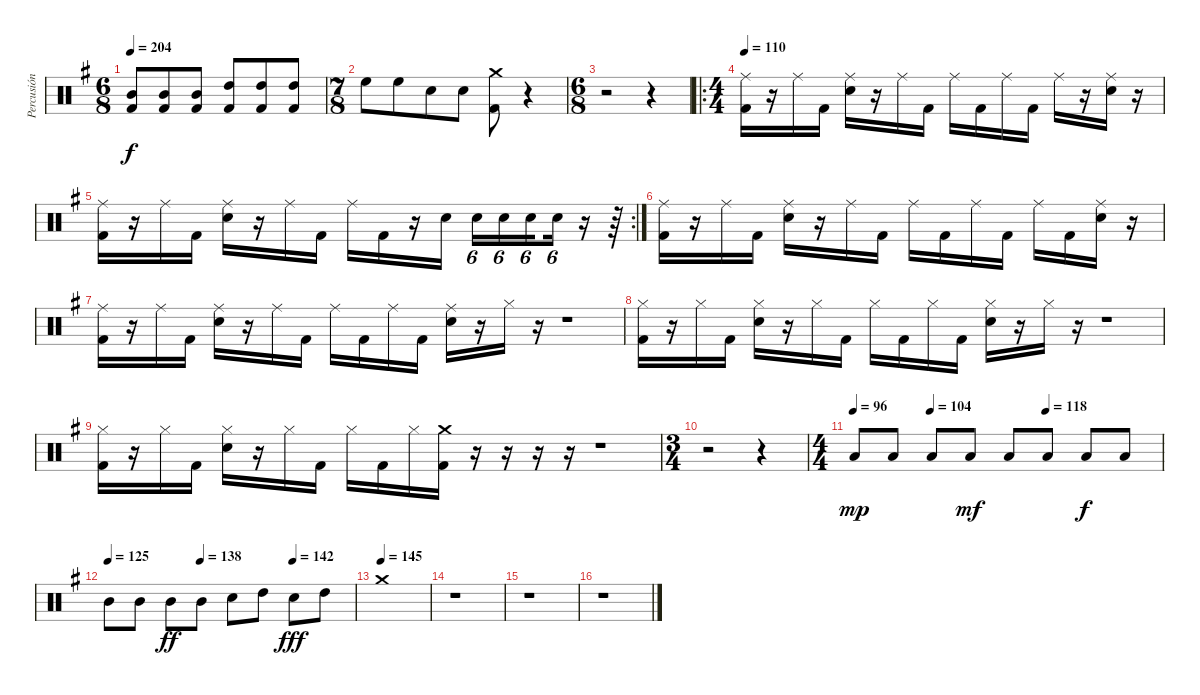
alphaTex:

\track ("Percusión" "Percusión") {instrument percussion}
\staff {score}
\articulation defaults
\ts (6 8)
\tempo 204
\clef neutral
\ks g
("Mid Tom (hit)" "Kick (hit) 2").8{dy f} ("Mid Tom (hit)" "Kick (hit) 2").8 ("Mid Tom (hit)" "Kick (hit) 2").8 ("High Tom (hit)" "Kick (hit) 2").8 ("High Tom (hit)" "Kick (hit) 2").8 ("High Tom (hit)" "Kick (hit) 2").8 |
\ts (7 8)
"High Floor Tom (hit)".8 "High Floor Tom (hit)".8 "Electric Snare (hit)".8 "Electric Snare (hit)".8 ("Crash medium (hit)" "Kick (hit) 2").8 r.4 |
\ts (6 8)
r.2 r.4 |
\ro
\ts (4 4)
\tempo 110
("Ride (middle)" "Kick (hit) 2").16 r.16 "Ride (middle)".16 "Kick (hit) 2".16 ("Ride (middle)" "Electric Snare (hit)").16 r.16 "Ride (middle)".16 "Kick (hit) 2".16 "Ride (middle)".16 "Kick (hit) 2".16 "Ride (middle)".16 "Kick (hit) 2".16 "Ride (middle)".16 r.16 ("Ride (middle)" "Electric Snare (hit)").16 r.16 |
\rc 2
("Ride (middle)" "Kick (hit) 2").16 r.16 "Ride (middle)".16 "Kick (hit) 2".16 ("Ride (middle)" "Electric Snare (hit)").16 r.16 "Ride (middle)".16 "Kick (hit) 2".16 "Ride (middle)".16 "Kick (hit) 2".16 r.16 "Electric Snare (hit)".16 "Electric Snare (hit)".16{tu (6 4)} "Electric Snare (hit)".16{tu (6 4)} "Electric Snare (hit)".16{tu (6 4) beam splitsecondary} "Electric Snare (hit)".16{tu (6 4)} r.16 r.64 |
("Ride (middle)" "Kick (hit) 2").16 r.16 "Ride (middle)".16 "Kick (hit) 2".16 ("Ride (middle)" "Electric Snare (hit)").16 r.16 "Ride (middle)".16 "Kick (hit) 2".16 "Ride (middle)".16 "Kick (hit) 2".16 "Ride (middle)".16 "Kick (hit) 2".16 "Ride (middle)".16 "Kick (hit) 2".16 ("Ride (middle)" "Electric Snare (hit)").16 r.16 |
("Ride (middle)" "Kick (hit) 2").16 r.16 "Ride (middle)".16 "Kick (hit) 2".16 ("Ride (middle)" "Electric Snare (hit)").16 r.16 "Ride (middle)".16 "Kick (hit) 2".16 "Ride (middle)".16 "Kick (hit) 2".16 "Ride (middle)".16 "Kick (hit) 2".16 ("Ride (middle)" "Electric Snare (hit)").16 r.16 "Hi-Hat (closed)".16 r.16 r.1 |
("Hi-Hat (closed)" "Kick (hit) 2").16 r.16 "Hi-Hat (closed)".16 "Kick (hit) 2".16 ("Hi-Hat (closed)" "Electric Snare (hit)").16 r.16 "Hi-Hat (closed)".16 "Kick (hit) 2".16 "Hi-Hat (closed)".16 "Kick (hit) 2".16 "Hi-Hat (closed)".16 "Kick (hit) 2".16 ("Hi-Hat (closed)" "Electric Snare (hit)").16 r.16 "Hi-Hat (closed)".16 r.16 r.1 |
("Hi-Hat (closed)" "Kick (hit) 2").16 r.16 "Hi-Hat (closed)".16 "Kick (hit) 2".16 ("Hi-Hat (closed)" "Electric Snare (hit)").16 r.16 "Hi-Hat (closed)".16 "Kick (hit) 2".16 "Hi-Hat (closed)".16 "Kick (hit) 2".16 "Hi-Hat (closed)".16 ("Crash medium (hit)" "Kick (hit) 2").16 r.16 r.16 r.16 r.16 r.1 |
\ts (3 4)
r.2 r.4 |
\ts (4 4)
\tempo 96
\tempo (104 0.25)
\tempo (118 0.625)
"Low Floor Tom (hit)".8{dy mp} "Low Floor Tom (hit)".8 "Low Floor Tom (hit)".8 "Low Floor Tom (hit)".8{dy mf} "Low Tom (hit)".8 "Low Tom (hit)".8 "Low Tom (hit)".8{dy f} "Low Tom (hit)".8 |
\tempo 125
\tempo (138 0.375)
\tempo (142 0.75)
"Mid Tom (hit)".8 "Mid Tom (hit)".8 "Mid Tom (hit)".8{dy ff} "Mid Tom (hit)".8 "Electric Snare (hit)".8 "High Tom (hit)".8 "Electric Snare (hit)".8{dy fff} "High Tom (hit)".8 |
\tempo (145)
"Crash medium (hit)".1 |
r.1 |
r.1 |
r.1
